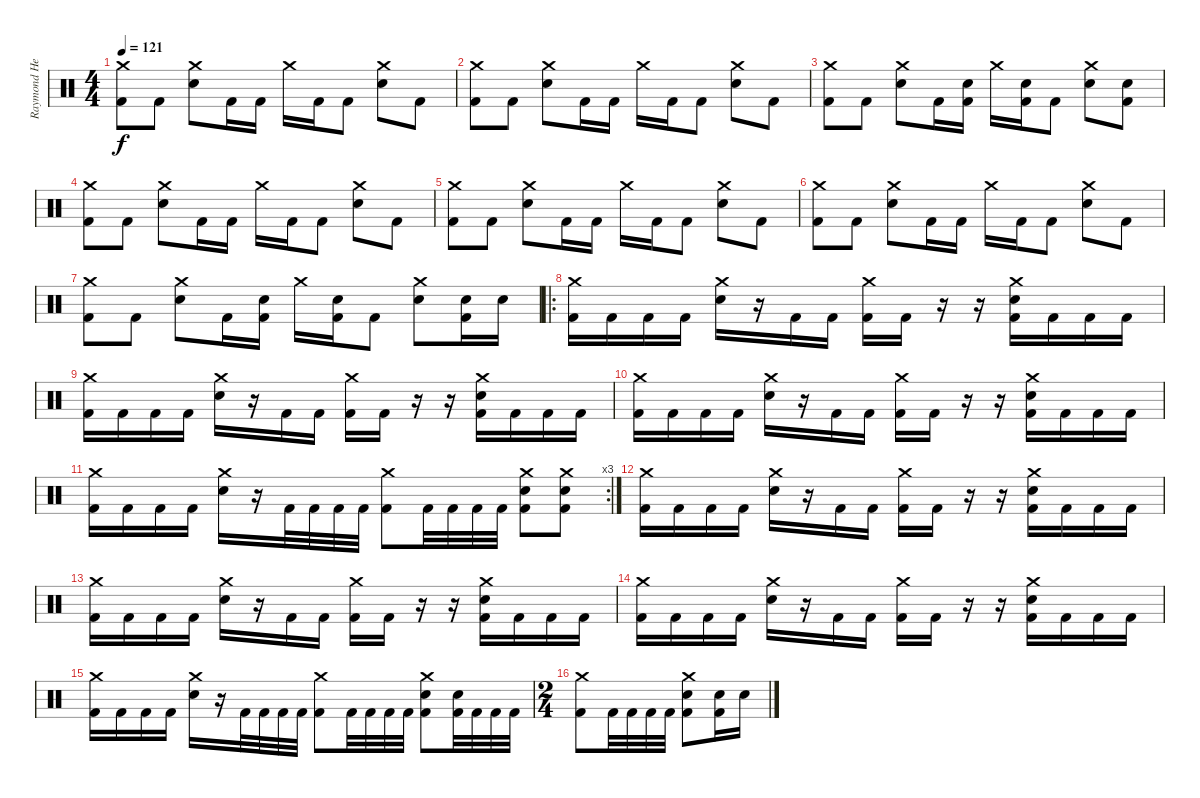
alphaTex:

\track ("Raymond Herrerra" "Raymond He") {instrument percussion}
\staff {score}
\articulation defaults
\ts (4 4)
\tempo 121
\clef neutral
\ks c
("Crash medium (hit)" "Kick (hit) 2").8{dy f} "Kick (hit) 2".8 ("Crash medium (hit)" "Electric Snare (hit)").8 "Kick (hit) 2".16 "Kick (hit) 2".16 "Crash medium (hit)".16 "Kick (hit) 2".16 "Kick (hit) 2".8 ("Crash medium (hit)" "Electric Snare (hit)").8 "Kick (hit) 2".8 |
("Crash medium (hit)" "Kick (hit) 2").8 "Kick (hit) 2".8 ("Crash medium (hit)" "Electric Snare (hit)").8 "Kick (hit) 2".16 "Kick (hit) 2".16 "Crash medium (hit)".16 "Kick (hit) 2".16 "Kick (hit) 2".8 ("Crash medium (hit)" "Electric Snare (hit)").8 "Kick (hit) 2".8 |
("Crash medium (hit)" "Kick (hit) 2").8 "Kick (hit) 2".8 ("Crash medium (hit)" "Electric Snare (hit)").8 "Kick (hit) 2".16 ("Electric Snare (hit)" "Kick (hit) 2").16 "Crash medium (hit)".16 ("Electric Snare (hit)" "Kick (hit) 2").16 "Kick (hit) 2".8 ("Crash medium (hit)" "Electric Snare (hit)").8 ("Electric Snare (hit)" "Kick (hit) 2").8 |
("Crash medium (hit)" "Kick (hit) 2").8 "Kick (hit) 2".8 ("Crash medium (hit)" "Electric Snare (hit)").8 "Kick (hit) 2".16 "Kick (hit) 2".16 "Crash medium (hit)".16 "Kick (hit) 2".16 "Kick (hit) 2".8 ("Crash medium (hit)" "Electric Snare (hit)").8 "Kick (hit) 2".8 |
("Crash medium (hit)" "Kick (hit) 2").8 "Kick (hit) 2".8 ("Crash medium (hit)" "Electric Snare (hit)").8 "Kick (hit) 2".16 "Kick (hit) 2".16 "Crash medium (hit)".16 "Kick (hit) 2".16 "Kick (hit) 2".8 ("Crash medium (hit)" "Electric Snare (hit)").8 "Kick (hit) 2".8 |
("Crash medium (hit)" "Kick (hit) 2").8 "Kick (hit) 2".8 ("Crash medium (hit)" "Electric Snare (hit)").8 "Kick (hit) 2".16 "Kick (hit) 2".16 "Crash medium (hit)".16 "Kick (hit) 2".16 "Kick (hit) 2".8 ("Crash medium (hit)" "Electric Snare (hit)").8 "Kick (hit) 2".8 |
("Crash medium (hit)" "Kick (hit) 2").8 "Kick (hit) 2".8 ("Crash medium (hit)" "Electric Snare (hit)").8 "Kick (hit) 2".16 ("Electric Snare (hit)" "Kick (hit) 2").16 "Crash medium (hit)".16 ("Electric Snare (hit)" "Kick (hit) 2").16 "Kick (hit) 2".8 ("Crash medium (hit)" "Electric Snare (hit)").8 ("Electric Snare (hit)" "Kick (hit) 2").16 "Electric Snare (hit)".16 |
\ro
("Crash medium (hit)" "Kick (hit) 2").16 "Kick (hit) 2".16 "Kick (hit) 2".16 "Kick (hit) 2".16 ("Crash medium (hit)" "Electric Snare (hit)").16 r.16 "Kick (hit) 2".16 "Kick (hit) 2".16 ("Crash medium (hit)" "Kick (hit) 2").16 "Kick (hit) 2".16 r.16 r.16 ("Crash medium (hit)" "Electric Snare (hit)" "Kick (hit) 2").16 "Kick (hit) 2".16 "Kick (hit) 2".16 "Kick (hit) 2".16 |
("Crash medium (hit)" "Kick (hit) 2").16 "Kick (hit) 2".16 "Kick (hit) 2".16 "Kick (hit) 2".16 ("Crash medium (hit)" "Electric Snare (hit)").16 r.16 "Kick (hit) 2".16 "Kick (hit) 2".16 ("Crash medium (hit)" "Kick (hit) 2").16 "Kick (hit) 2".16 r.16 r.16 ("Crash medium (hit)" "Electric Snare (hit)" "Kick (hit) 2").16 "Kick (hit) 2".16 "Kick (hit) 2".16 "Kick (hit) 2".16 |
("Crash medium (hit)" "Kick (hit) 2").16 "Kick (hit) 2".16 "Kick (hit) 2".16 "Kick (hit) 2".16 ("Crash medium (hit)" "Electric Snare (hit)").16 r.16 "Kick (hit) 2".16 "Kick (hit) 2".16 ("Crash medium (hit)" "Kick (hit) 2").16 "Kick (hit) 2".16 r.16 r.16 ("Crash medium (hit)" "Electric Snare (hit)" "Kick (hit) 2").16 "Kick (hit) 2".16 "Kick (hit) 2".16 "Kick (hit) 2".16 |
\rc 3
("Crash medium (hit)" "Kick (hit) 2").16 "Kick (hit) 2".16 "Kick (hit) 2".16 "Kick (hit) 2".16 ("Crash medium (hit)" "Electric Snare (hit)").16 r.16 "Kick (hit) 2".32 "Kick (hit) 2".32 "Kick (hit) 2".32 "Kick (hit) 2".32 ("Crash medium (hit)" "Kick (hit) 2").8 "Kick (hit) 2".32 "Kick (hit) 2".32 "Kick (hit) 2".32 "Kick (hit) 2".32 ("Crash medium (hit)" "Electric Snare (hit)" "Kick (hit) 2").8 ("Crash medium (hit)" "Electric Snare (hit)" "Kick (hit) 2").8 |
("Crash medium (hit)" "Kick (hit) 2").16 "Kick (hit) 2".16 "Kick (hit) 2".16 "Kick (hit) 2".16 ("Crash medium (hit)" "Electric Snare (hit)").16 r.16 "Kick (hit) 2".16 "Kick (hit) 2".16 ("Crash medium (hit)" "Kick (hit) 2").16 "Kick (hit) 2".16 r.16 r.16 ("Crash medium (hit)" "Electric Snare (hit)" "Kick (hit) 2").16 "Kick (hit) 2".16 "Kick (hit) 2".16 "Kick (hit) 2".16 |
("Crash medium (hit)" "Kick (hit) 2").16 "Kick (hit) 2".16 "Kick (hit) 2".16 "Kick (hit) 2".16 ("Crash medium (hit)" "Electric Snare (hit)").16 r.16 "Kick (hit) 2".16 "Kick (hit) 2".16 ("Crash medium (hit)" "Kick (hit) 2").16 "Kick (hit) 2".16 r.16 r.16 ("Crash medium (hit)" "Electric Snare (hit)" "Kick (hit) 2").16 "Kick (hit) 2".16 "Kick (hit) 2".16 "Kick (hit) 2".16 |
("Crash medium (hit)" "Kick (hit) 2").16 "Kick (hit) 2".16 "Kick (hit) 2".16 "Kick (hit) 2".16 ("Crash medium (hit)" "Electric Snare (hit)").16 r.16 "Kick (hit) 2".16 "Kick (hit) 2".16 ("Crash medium (hit)" "Kick (hit) 2").16 "Kick (hit) 2".16 r.16 r.16 ("Crash medium (hit)" "Electric Snare (hit)" "Kick (hit) 2").16 "Kick (hit) 2".16 "Kick (hit) 2".16 "Kick (hit) 2".16 |
("Crash medium (hit)" "Kick (hit) 2").16 "Kick (hit) 2".16 "Kick (hit) 2".16 "Kick (hit) 2".16 ("Crash medium (hit)" "Electric Snare (hit)").16 r.16 "Kick (hit) 2".32 "Kick (hit) 2".32 "Kick (hit) 2".32 "Kick (hit) 2".32 ("Crash medium (hit)" "Kick (hit) 2").8 "Kick (hit) 2".32 "Kick (hit) 2".32 "Kick (hit) 2".32 "Kick (hit) 2".32 ("Crash medium (hit)" "Electric Snare (hit)" "Kick (hit) 2").8 ("Electric Snare (hit)" "Kick (hit) 2").32 "Kick (hit) 2".32 "Kick (hit) 2".32 "Kick (hit) 2".32 |
\ts (2 4)
("Crash medium (hit)" "Kick (hit) 2").8 "Kick (hit) 2".32 "Kick (hit) 2".32 "Kick (hit) 2".32 "Kick (hit) 2".32 ("Crash medium (hit)" "Electric Snare (hit)" "Kick (hit) 2").8 ("Electric Snare (hit)" "Kick (hit) 2").16 "Electric Snare (hit)".16
